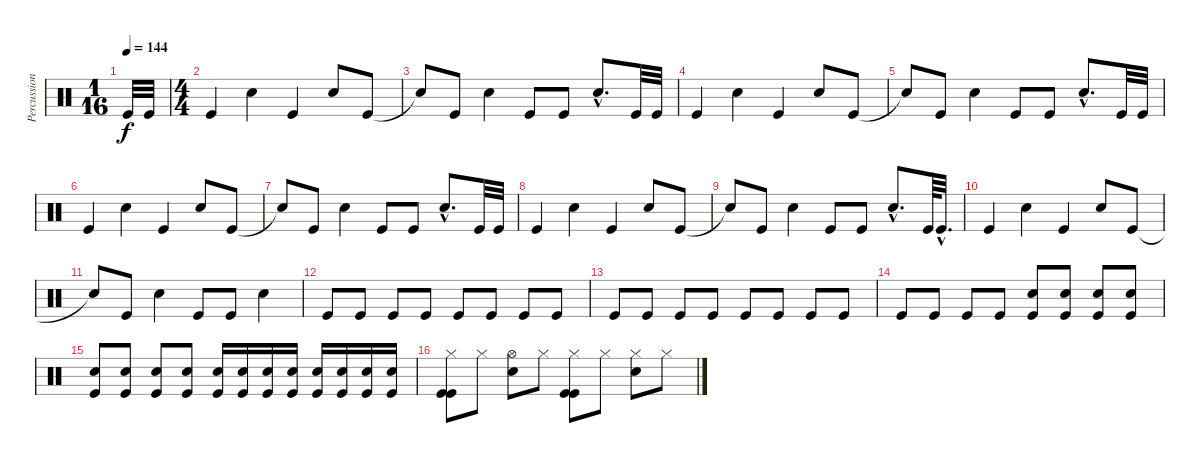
\track ("Percussion" "Percussion") {instrument percussion}
\staff {score}
\articulation defaults
\ts (1 16)
\tempo 144
\clef neutral
\ks c "Kick (hit)".32{dy f} "Kick (hit)".32
|
\ts (4 4)
"Kick (hit)".4 "Snare (hit) 2".4 "Kick (hit)".4 "Snare (hit) 2".8 "Kick (hit)".8 |
"Snare (hit)"{t}.8 "Kick (hit)".8 "Snare (hit) 2".4 "Kick (hit)".8 "Kick (hit)".8 "Snare (hit) 2"{hac}.8{d} "Kick (hit)".32 "Kick (hit)".32 |
"Kick (hit)".4 "Snare (hit) 2".4 "Kick (hit)".4 "Snare (hit) 2".8 "Kick (hit)".8 |
"Snare (hit)"{t}.8 "Kick (hit)".8 "Snare (hit) 2".4 "Kick (hit)".8 "Kick (hit)".8 "Snare (hit) 2"{hac}.8{d} "Kick (hit)".32 "Kick (hit)".32 |
"Kick (hit)".4 "Snare (hit) 2".4 "Kick (hit)".4 "Snare (hit) 2".8 "Kick (hit)".8 |
"Snare (hit)"{t}.8 "Kick (hit)".8 "Snare (hit) 2".4 "Kick (hit)".8 "Kick (hit)".8 "Snare (hit) 2"{hac}.8{d} "Kick (hit)".32 "Kick (hit)".32 |
"Kick (hit)".4 "Snare (hit) 2".4 "Kick (hit)".4 "Snare (hit) 2".8 "Kick (hit)".8 |
"Snare (hit)"{t}.8 "Kick (hit)".8 "Snare (hit) 2".4 "Kick (hit)".8 "Kick (hit)".8 "Snare (hit) 2"{hac}.8{d} "Kick (hit)".64 "Kick (hit)"{hac}.32{d} |
"Kick (hit)".4 "Snare (hit) 2".4 "Kick (hit)".4 "Snare (hit) 2".8 "Kick (hit)".8 |
"Snare (hit)"{t}.8 "Kick (hit)".8 "Snare (hit) 2".4 "Kick (hit)".8 "Kick (hit)".8 "Snare (hit) 2".4 |
"Kick (hit)".8 "Kick (hit)".8 "Kick (hit)".8 "Kick (hit)".8 "Kick (hit)".8 "Kick (hit)".8 "Kick (hit)".8 "Kick (hit)".8 |
"Kick (hit)".8 "Kick (hit)".8 "Kick (hit)".8 "Kick (hit)".8 "Kick (hit)".8 "Kick (hit)".8 "Kick (hit)".8 "Kick (hit)".8 |
"Kick (hit)".8 "Kick (hit)".8 "Kick (hit)".8 "Kick (hit)".8 ("Kick (hit)" "Snare (hit) 2").8 ("Kick (hit)" "Snare (hit) 2").8 ("Kick (hit)" "Snare (hit) 2").8 ("Kick (hit)" "Snare (hit) 2").8 |
("Kick (hit)" "Snare (hit) 2").8 ("Kick (hit)" "Snare (hit) 2").8 ("Kick (hit)" "Snare (hit) 2").8 ("Kick (hit)" "Snare (hit) 2").8 ("Snare (hit) 2" "Kick (hit)").16 ("Snare (hit) 2" "Kick (hit)").16 ("Snare (hit) 2" "Kick (hit)").16 ("Snare (hit) 2" "Kick (hit)").16 ("Snare (hit) 2" "Kick (hit)").16 ("Snare (hit) 2" "Kick (hit)").16 ("Snare (hit) 2" "Kick (hit)").16 ("Snare (hit) 2" "Kick (hit)").16 |
("Hi-Hat (closed)" "Kick (hit)" "Kick (hit)").8 "Hi-Hat (closed)".8 ("Hi-Hat (open)" "Snare (hit) 2").8 "Hi-Hat (closed)".8 ("Hi-Hat (closed)" "Kick (hit)" "Kick (hit)").8 "Hi-Hat (closed)".8 ("Hi-Hat (closed)" "Snare (hit) 2").8 "Hi-Hat (closed)".8
